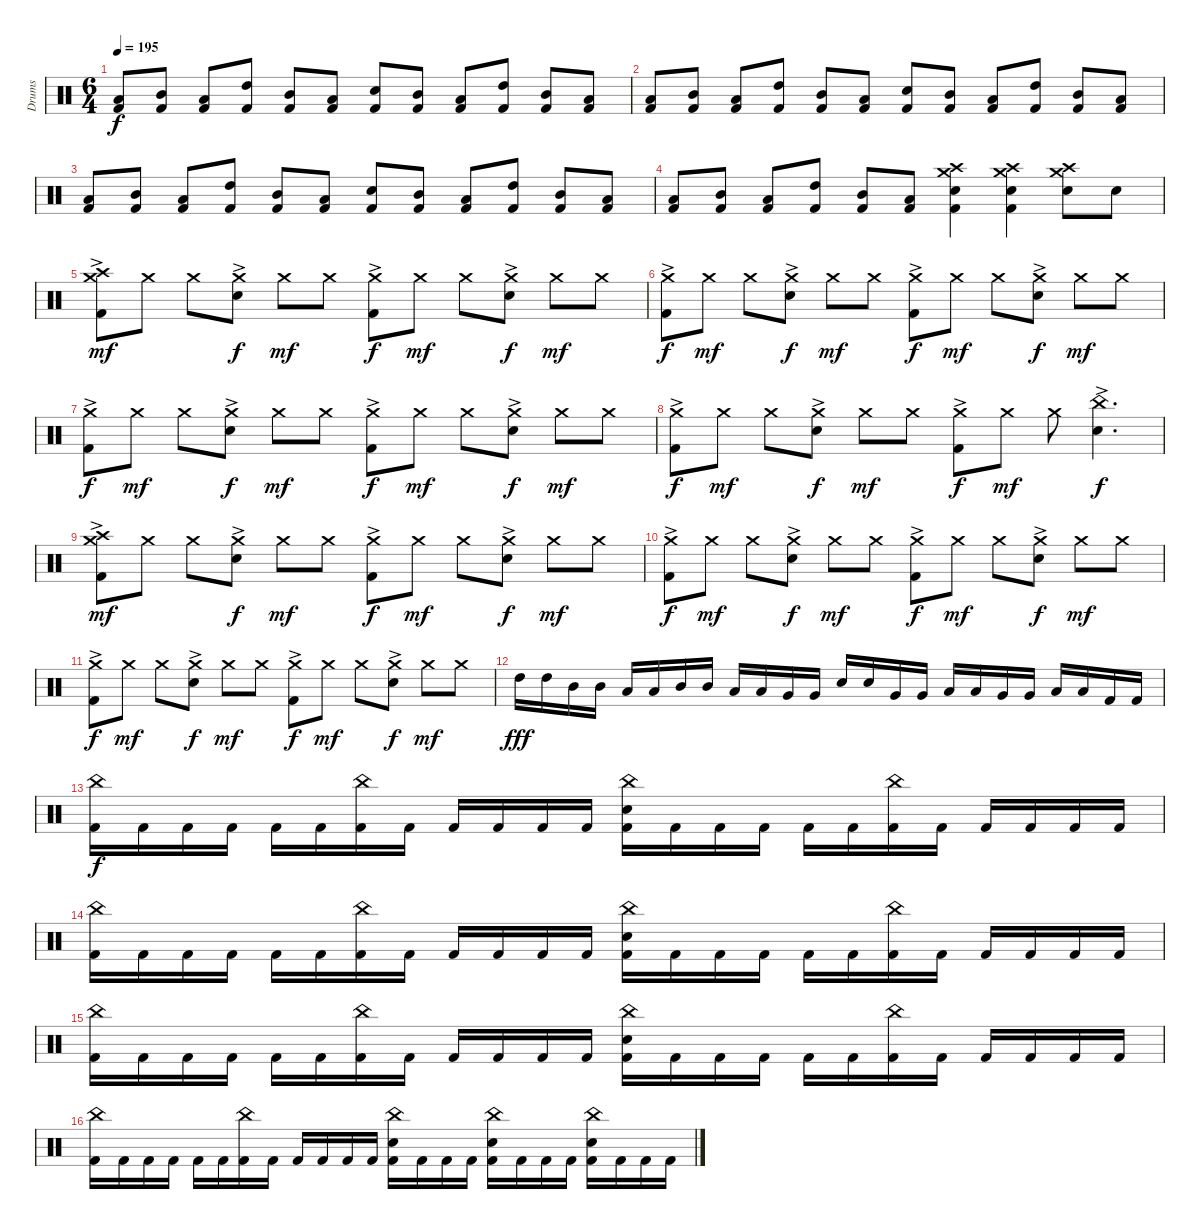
\track ("Drums" "Drums") {instrument percussion}
\staff {score}
\articulation defaults
\ts (6 4)
\tempo 195
\clef neutral
\ks c
("Low Tom (hit)" "Kick (hit) 2").8{dy f} ("Mid Tom (hit)" "Kick (hit) 2").8 ("Low Tom (hit)" "Kick (hit) 2").8 ("High Tom (hit)" "Kick (hit) 2").8 ("Mid Tom (hit)" "Kick (hit) 2").8 ("Low Tom (hit)" "Kick (hit) 2").8 ("Electric Snare (hit)" "Kick (hit) 2").8 ("Mid Tom (hit)" "Kick (hit) 2").8 ("Low Tom (hit)" "Kick (hit) 2").8 ("High Tom (hit)" "Kick (hit) 2").8 ("Mid Tom (hit)" "Kick (hit) 2").8 ("Low Tom (hit)" "Kick (hit) 2").8 |
("Low Tom (hit)" "Kick (hit) 2").8 ("Mid Tom (hit)" "Kick (hit) 2").8 ("Low Tom (hit)" "Kick (hit) 2").8 ("High Tom (hit)" "Kick (hit) 2").8 ("Mid Tom (hit)" "Kick (hit) 2").8 ("Low Tom (hit)" "Kick (hit) 2").8 ("Electric Snare (hit)" "Kick (hit) 2").8 ("Mid Tom (hit)" "Kick (hit) 2").8 ("Low Tom (hit)" "Kick (hit) 2").8 ("High Tom (hit)" "Kick (hit) 2").8 ("Mid Tom (hit)" "Kick (hit) 2").8 ("Low Tom (hit)" "Kick (hit) 2").8 |
("Low Tom (hit)" "Kick (hit) 2").8 ("Mid Tom (hit)" "Kick (hit) 2").8 ("Low Tom (hit)" "Kick (hit) 2").8 ("High Tom (hit)" "Kick (hit) 2").8 ("Mid Tom (hit)" "Kick (hit) 2").8 ("Low Tom (hit)" "Kick (hit) 2").8 ("Electric Snare (hit)" "Kick (hit) 2").8 ("Mid Tom (hit)" "Kick (hit) 2").8 ("Low Tom (hit)" "Kick (hit) 2").8 ("High Tom (hit)" "Kick (hit) 2").8 ("Mid Tom (hit)" "Kick (hit) 2").8 ("Low Tom (hit)" "Kick (hit) 2").8 |
("Low Tom (hit)" "Kick (hit) 2").8 ("Mid Tom (hit)" "Kick (hit) 2").8 ("Low Tom (hit)" "Kick (hit) 2").8 ("High Tom (hit)" "Kick (hit) 2").8 ("Mid Tom (hit)" "Kick (hit) 2").8 ("Low Tom (hit)" "Kick (hit) 2").8 ("Crash high (hit)" "Crash medium (hit)" "Electric Snare (hit)" "Kick (hit) 2").4 ("Crash high (hit)" "Crash medium (hit)" "Electric Snare (hit)" "Kick (hit) 2").4 ("Crash high (hit)" "Crash medium (hit)" "Electric Snare (hit)").8 "Electric Snare (hit)".8 |
("Crash medium (hit)"{ac} "Crash high (hit)" "Kick (hit) 2").8{dy mf} "Crash medium (hit)".8 "Crash medium (hit)".8 ("Crash medium (hit)"{ac} "Electric Snare (hit)").8{dy f} "Crash medium (hit)".8{dy mf} "Crash medium (hit)".8 ("Crash medium (hit)"{ac} "Kick (hit) 2").8{dy f} "Crash medium (hit)".8{dy mf} "Crash medium (hit)".8 ("Crash medium (hit)"{ac} "Electric Snare (hit)").8{dy f} "Crash medium (hit)".8{dy mf} "Crash medium (hit)".8 |
("Crash medium (hit)"{ac} "Kick (hit) 2").8{dy f} "Crash medium (hit)".8{dy mf} "Crash medium (hit)".8 ("Crash medium (hit)"{ac} "Electric Snare (hit)").8{dy f} "Crash medium (hit)".8{dy mf} "Crash medium (hit)".8 ("Crash medium (hit)"{ac} "Kick (hit) 2").8{dy f} "Crash medium (hit)".8{dy mf} "Crash medium (hit)".8 ("Crash medium (hit)"{ac} "Electric Snare (hit)").8{dy f} "Crash medium (hit)".8{dy mf} "Crash medium (hit)".8 |
("Crash medium (hit)"{ac} "Kick (hit) 2").8{dy f} "Crash medium (hit)".8{dy mf} "Crash medium (hit)".8 ("Crash medium (hit)"{ac} "Electric Snare (hit)").8{dy f} "Crash medium (hit)".8{dy mf} "Crash medium (hit)".8 ("Crash medium (hit)"{ac} "Kick (hit) 2").8{dy f} "Crash medium (hit)".8{dy mf} "Crash medium (hit)".8 ("Crash medium (hit)"{ac} "Electric Snare (hit)").8{dy f} "Crash medium (hit)".8{dy mf} "Crash medium (hit)".8 |
("Crash medium (hit)"{ac} "Kick (hit) 2").8{dy f} "Crash medium (hit)".8{dy mf} "Crash medium (hit)".8 ("Crash medium (hit)"{ac} "Electric Snare (hit)").8{dy f} "Crash medium (hit)".8{dy mf} "Crash medium (hit)".8 ("Crash medium (hit)"{ac} "Kick (hit) 2").8{dy f} "Crash medium (hit)".8{dy mf} "Crash medium (hit)".8 ("China (hit)"{ac} "Electric Snare (hit)").4{d dy f} |
("Crash medium (hit)"{ac} "Crash high (hit)" "Kick (hit) 2").8{dy mf} "Crash medium (hit)".8 "Crash medium (hit)".8 ("Crash medium (hit)"{ac} "Electric Snare (hit)").8{dy f} "Crash medium (hit)".8{dy mf} "Crash medium (hit)".8 ("Crash medium (hit)"{ac} "Kick (hit) 2").8{dy f} "Crash medium (hit)".8{dy mf} "Crash medium (hit)".8 ("Crash medium (hit)"{ac} "Electric Snare (hit)").8{dy f} "Crash medium (hit)".8{dy mf} "Crash medium (hit)".8 |
("Crash medium (hit)"{ac} "Kick (hit) 2").8{dy f} "Crash medium (hit)".8{dy mf} "Crash medium (hit)".8 ("Crash medium (hit)"{ac} "Electric Snare (hit)").8{dy f} "Crash medium (hit)".8{dy mf} "Crash medium (hit)".8 ("Crash medium (hit)"{ac} "Kick (hit) 2").8{dy f} "Crash medium (hit)".8{dy mf} "Crash medium (hit)".8 ("Crash medium (hit)"{ac} "Electric Snare (hit)").8{dy f} "Crash medium (hit)".8{dy mf} "Crash medium (hit)".8 |
("Crash medium (hit)"{ac} "Kick (hit) 2").8{dy f} "Crash medium (hit)".8{dy mf} "Crash medium (hit)".8 ("Crash medium (hit)"{ac} "Electric Snare (hit)").8{dy f} "Crash medium (hit)".8{dy mf} "Crash medium (hit)".8 ("Crash medium (hit)"{ac} "Kick (hit) 2").8{dy f} "Crash medium (hit)".8{dy mf} "Crash medium (hit)".8 ("Crash medium (hit)"{ac} "Electric Snare (hit)").8{dy f} "Crash medium (hit)".8{dy mf} "Crash medium (hit)".8 |
"High Tom (hit)".16{dy fff} "High Tom (hit)".16 "Mid Tom (hit)".16 "Mid Tom (hit)".16 "Low Tom (hit)".16 "Low Tom (hit)".16 "Mid Tom (hit)".16 "Mid Tom (hit)".16 "Low Tom (hit)".16 "Low Tom (hit)".16 "Very Low Tom (hit)".16 "Very Low Tom (hit)".16 "Electric Snare (hit)".16 "Electric Snare (hit)".16 "Very Low Tom (hit)".16 "Very Low Tom (hit)".16 "Low Floor Tom (hit)".16 "Low Floor Tom (hit)".16 "Very Low Tom (hit)".16 "Very Low Tom (hit)".16 "Low Floor Tom (hit)".16 "Low Floor Tom (hit)".16 "Kick (hit) 2".16 "Kick (hit) 2".16 |
("China (hit)" "Kick (hit) 2").16{dy f} "Kick (hit) 2".16 "Kick (hit) 2".16 "Kick (hit) 2".16 "Kick (hit) 2".16 "Kick (hit) 2".16 ("China (hit)" "Kick (hit) 2").16 "Kick (hit) 2".16 "Kick (hit) 2".16 "Kick (hit) 2".16 "Kick (hit) 2".16 "Kick (hit) 2".16 ("China (hit)" "Electric Snare (hit)" "Kick (hit) 2").16 "Kick (hit) 2".16 "Kick (hit) 2".16 "Kick (hit) 2".16 "Kick (hit) 2".16 "Kick (hit) 2".16 ("China (hit)" "Kick (hit) 2").16 "Kick (hit) 2".16 "Kick (hit) 2".16 "Kick (hit) 2".16 "Kick (hit) 2".16 "Kick (hit) 2".16 |
("China (hit)" "Kick (hit) 2").16 "Kick (hit) 2".16 "Kick (hit) 2".16 "Kick (hit) 2".16 "Kick (hit) 2".16 "Kick (hit) 2".16 ("China (hit)" "Kick (hit) 2").16 "Kick (hit) 2".16 "Kick (hit) 2".16 "Kick (hit) 2".16 "Kick (hit) 2".16 "Kick (hit) 2".16 ("China (hit)" "Electric Snare (hit)" "Kick (hit) 2").16 "Kick (hit) 2".16 "Kick (hit) 2".16 "Kick (hit) 2".16 "Kick (hit) 2".16 "Kick (hit) 2".16 ("China (hit)" "Kick (hit) 2").16 "Kick (hit) 2".16 "Kick (hit) 2".16 "Kick (hit) 2".16 "Kick (hit) 2".16 "Kick (hit) 2".16 |
("China (hit)" "Kick (hit) 2").16 "Kick (hit) 2".16 "Kick (hit) 2".16 "Kick (hit) 2".16 "Kick (hit) 2".16 "Kick (hit) 2".16 ("China (hit)" "Kick (hit) 2").16 "Kick (hit) 2".16 "Kick (hit) 2".16 "Kick (hit) 2".16 "Kick (hit) 2".16 "Kick (hit) 2".16 ("China (hit)" "Electric Snare (hit)" "Kick (hit) 2").16 "Kick (hit) 2".16 "Kick (hit) 2".16 "Kick (hit) 2".16 "Kick (hit) 2".16 "Kick (hit) 2".16 ("China (hit)" "Kick (hit) 2").16 "Kick (hit) 2".16 "Kick (hit) 2".16 "Kick (hit) 2".16 "Kick (hit) 2".16 "Kick (hit) 2".16 |
("China (hit)" "Kick (hit) 2").16 "Kick (hit) 2".16 "Kick (hit) 2".16 "Kick (hit) 2".16 "Kick (hit) 2".16 "Kick (hit) 2".16 ("China (hit)" "Kick (hit) 2").16 "Kick (hit) 2".16 "Kick (hit) 2".16 "Kick (hit) 2".16 "Kick (hit) 2".16 "Kick (hit) 2".16 ("China (hit)" "Electric Snare (hit)" "Kick (hit) 2").16 "Kick (hit) 2".16 "Kick (hit) 2".16 "Kick (hit) 2".16 ("China (hit)" "Electric Snare (hit)" "Kick (hit) 2").16 "Kick (hit) 2".16 "Kick (hit) 2".16 "Kick (hit) 2".16 ("China (hit)" "Electric Snare (hit)" "Kick (hit) 2").16 "Kick (hit) 2".16 "Kick (hit) 2".16 "Kick (hit) 2".16
